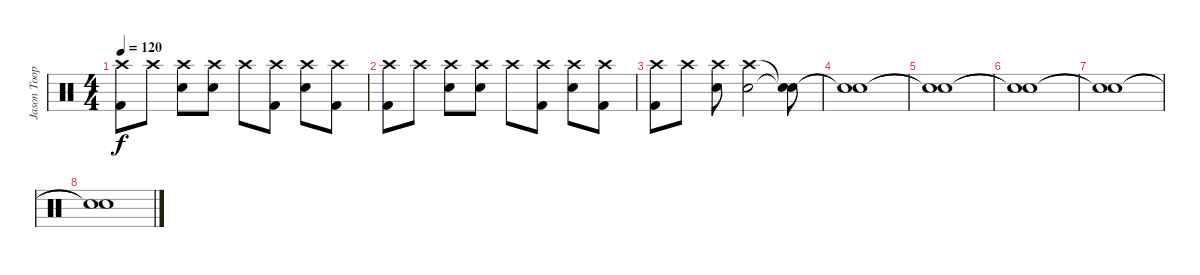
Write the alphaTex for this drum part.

\track ("Jason Toop Cooper" "Jason Toop") {instrument percussion}
\staff {score}
\articulation defaults
\ts (4 4)
\tempo 120
\clef neutral
\ks c
("Crash high (hit)" "Kick (hit) 2").8{dy f} "Crash high (hit)".8 ("Crash high (hit)" "Electric Snare (hit)").8 ("Crash high (hit)" "Electric Snare (hit)").8 "Crash high (hit)".8 ("Crash high (hit)" "Kick (hit) 2").8 ("Crash high (hit)" "Electric Snare (hit)").8 ("Crash high (hit)" "Kick (hit) 2").8 |
("Crash high (hit)" "Kick (hit) 2").8 "Crash high (hit)".8 ("Crash high (hit)" "Electric Snare (hit)").8 ("Crash high (hit)" "Electric Snare (hit)").8 "Crash high (hit)".8 ("Crash high (hit)" "Kick (hit) 2").8 ("Crash high (hit)" "Electric Snare (hit)").8 ("Crash high (hit)" "Kick (hit) 2").8 |
("Crash high (hit)" "Kick (hit) 2").8 "Crash high (hit)".8 ("Crash high (hit)" "Electric Snare (hit)").8 ("Crash high (hit)" "Electric Snare (hit)").2 ("Snare (hit)"{t} "Snare (hit)"{t}).8 |
("Snare (hit)"{t} "Snare (hit)"{t}).1 |
("Snare (hit)"{t} "Snare (hit)"{t}).1 |
("Snare (hit)"{t} "Snare (hit)"{t}).1 |
("Snare (hit)"{t} "Snare (hit)"{t}).1 |
("Snare (hit)"{t} "Snare (hit)"{t}).1
